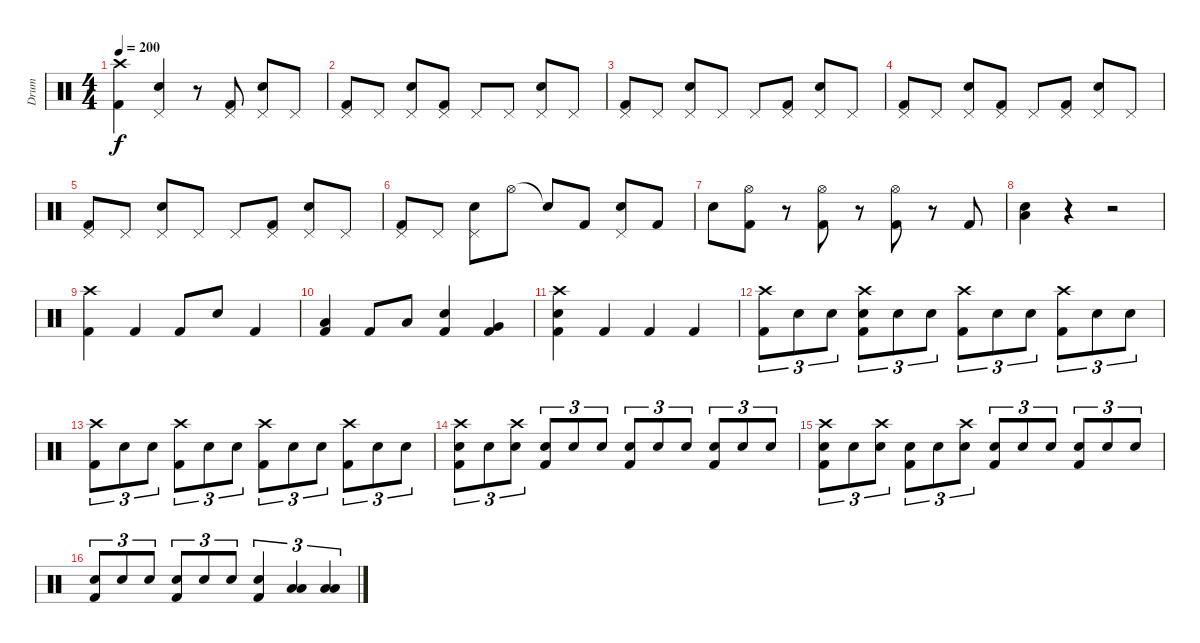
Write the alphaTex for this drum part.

\track ("Drum" "Drum") {instrument percussion}
\staff {score}
\articulation defaults
\ts (4 4)
\tempo 200
\clef neutral
\ks c
("Crash high (hit)" "Kick (hit) 2").4{dy f} ("Pedal Hi-Hat (hit)" "Electric Snare (hit)").4 r.8 ("Pedal Hi-Hat (hit)" "Kick (hit) 2").8 ("Pedal Hi-Hat (hit)" "Electric Snare (hit)").8 "Pedal Hi-Hat (hit)".8 |
("Pedal Hi-Hat (hit)" "Kick (hit) 2").8 "Pedal Hi-Hat (hit)".8 ("Pedal Hi-Hat (hit)" "Electric Snare (hit)").8 ("Pedal Hi-Hat (hit)" "Kick (hit) 2").8 "Pedal Hi-Hat (hit)".8 "Pedal Hi-Hat (hit)".8 ("Pedal Hi-Hat (hit)" "Electric Snare (hit)").8 "Pedal Hi-Hat (hit)".8 |
("Pedal Hi-Hat (hit)" "Kick (hit) 2").8 "Pedal Hi-Hat (hit)".8 ("Pedal Hi-Hat (hit)" "Electric Snare (hit)").8 "Pedal Hi-Hat (hit)".8 "Pedal Hi-Hat (hit)".8 ("Pedal Hi-Hat (hit)" "Kick (hit) 2").8 ("Pedal Hi-Hat (hit)" "Electric Snare (hit)").8 "Pedal Hi-Hat (hit)".8 |
("Pedal Hi-Hat (hit)" "Kick (hit) 2").8 "Pedal Hi-Hat (hit)".8 ("Pedal Hi-Hat (hit)" "Electric Snare (hit)").8 ("Pedal Hi-Hat (hit)" "Kick (hit) 2").8 "Pedal Hi-Hat (hit)".8 ("Pedal Hi-Hat (hit)" "Kick (hit) 2").8 ("Pedal Hi-Hat (hit)" "Electric Snare (hit)").8 "Pedal Hi-Hat (hit)".8 |
("Pedal Hi-Hat (hit)" "Kick (hit) 2").8 "Pedal Hi-Hat (hit)".8 ("Pedal Hi-Hat (hit)" "Electric Snare (hit)").8 "Pedal Hi-Hat (hit)".8 "Pedal Hi-Hat (hit)".8 ("Pedal Hi-Hat (hit)" "Kick (hit) 2").8 ("Pedal Hi-Hat (hit)" "Electric Snare (hit)").8 "Pedal Hi-Hat (hit)".8 |
("Pedal Hi-Hat (hit)" "Kick (hit) 2").8 "Pedal Hi-Hat (hit)".8 ("Pedal Hi-Hat (hit)" "Electric Snare (hit)").8 "Hi-Hat (open)".8 "Snare (hit)"{t}.8 "Kick (hit) 2".8 ("Pedal Hi-Hat (hit)" "Electric Snare (hit)").8 "Kick (hit) 2".8 |
"Electric Snare (hit)".8 ("Hi-Hat (open)" "Kick (hit) 2").8 r.8 ("Hi-Hat (open)" "Kick (hit) 2").8 r.8 ("Hi-Hat (open)" "Kick (hit) 2").8 r.8 "Kick (hit) 2".8 |
("Low Tom (hit)" "Electric Snare (hit)").4 r.4 r.2 |
("Crash high (hit)" "Kick (hit) 2").4 "Kick (hit) 2".4 "Kick (hit) 2".8 "Electric Snare (hit)".8 "Kick (hit) 2".4 |
("Low Tom (hit)" "Kick (hit) 2").4 "Kick (hit) 2".8 "Low Tom (hit)".8 ("Electric Snare (hit)" "Kick (hit) 2").4 ("Very Low Tom (hit)" "Kick (hit) 2").4 |
("Crash high (hit)" "Electric Snare (hit)" "Kick (hit) 2").4 "Kick (hit) 2".4 "Kick (hit) 2".4 "Kick (hit) 2".4 |
("Crash high (hit)" "Kick (hit) 2").8{tu (3 2)} "Electric Snare (hit)".8{tu (3 2)} "Electric Snare (hit)".8{tu (3 2)} ("Crash high (hit)" "Electric Snare (hit)" "Kick (hit) 2").8{tu (3 2)} "Electric Snare (hit)".8{tu (3 2)} "Electric Snare (hit)".8{tu (3 2)} ("Crash high (hit)" "Kick (hit) 2").8{tu (3 2)} "Electric Snare (hit)".8{tu (3 2)} "Electric Snare (hit)".8{tu (3 2)} ("Crash high (hit)" "Kick (hit) 2").8{tu (3 2)} "Electric Snare (hit)".8{tu (3 2)} "Electric Snare (hit)".8{tu (3 2)} |
("Crash high (hit)" "Kick (hit) 2").8{tu (3 2)} "Electric Snare (hit)".8{tu (3 2)} "Electric Snare (hit)".8{tu (3 2)} ("Crash high (hit)" "Kick (hit) 2").8{tu (3 2)} "Electric Snare (hit)".8{tu (3 2)} "Electric Snare (hit)".8{tu (3 2)} ("Crash high (hit)" "Kick (hit) 2").8{tu (3 2)} "Electric Snare (hit)".8{tu (3 2)} "Electric Snare (hit)".8{tu (3 2)} ("Crash high (hit)" "Kick (hit) 2").8{tu (3 2)} "Electric Snare (hit)".8{tu (3 2)} "Electric Snare (hit)".8{tu (3 2)} |
("Crash high (hit)" "Electric Snare (hit)" "Kick (hit) 2").8{tu (3 2)} "Electric Snare (hit)".8{tu (3 2)} ("Crash high (hit)" "Electric Snare (hit)").8{tu (3 2)} ("Electric Snare (hit)" "Kick (hit) 2").8{tu (3 2)} "Electric Snare (hit)".8{tu (3 2)} "Electric Snare (hit)".8{tu (3 2)} ("Electric Snare (hit)" "Kick (hit) 2").8{tu (3 2)} "Electric Snare (hit)".8{tu (3 2)} "Electric Snare (hit)".8{tu (3 2)} ("Electric Snare (hit)" "Kick (hit) 2").8{tu (3 2)} "Electric Snare (hit)".8{tu (3 2)} "Electric Snare (hit)".8{tu (3 2)} |
("Crash high (hit)" "Electric Snare (hit)" "Kick (hit) 2").8{tu (3 2)} "Electric Snare (hit)".8{tu (3 2)} ("Crash high (hit)" "Electric Snare (hit)").8{tu (3 2)} ("Electric Snare (hit)" "Kick (hit) 2").8{tu (3 2)} "Electric Snare (hit)".8{tu (3 2)} ("Crash high (hit)" "Electric Snare (hit)").8{tu (3 2)} ("Electric Snare (hit)" "Kick (hit) 2").8{tu (3 2)} "Electric Snare (hit)".8{tu (3 2)} "Electric Snare (hit)".8{tu (3 2)} ("Electric Snare (hit)" "Kick (hit) 2").8{tu (3 2)} "Electric Snare (hit)".8{tu (3 2)} "Electric Snare (hit)".8{tu (3 2)} |
("Electric Snare (hit)" "Kick (hit) 2").8{tu (3 2)} "Electric Snare (hit)".8{tu (3 2)} "Electric Snare (hit)".8{tu (3 2)} ("Electric Snare (hit)" "Kick (hit) 2").8{tu (3 2)} "Electric Snare (hit)".8{tu (3 2)} "Electric Snare (hit)".8{tu (3 2)} ("Electric Snare (hit)" "Kick (hit) 2").4{tu (3 2)} ("Low Tom (hit)" "Low Floor Tom (hit)").4{tu (3 2)} ("Low Tom (hit)" "Low Floor Tom (hit)").4{tu (3 2)}
